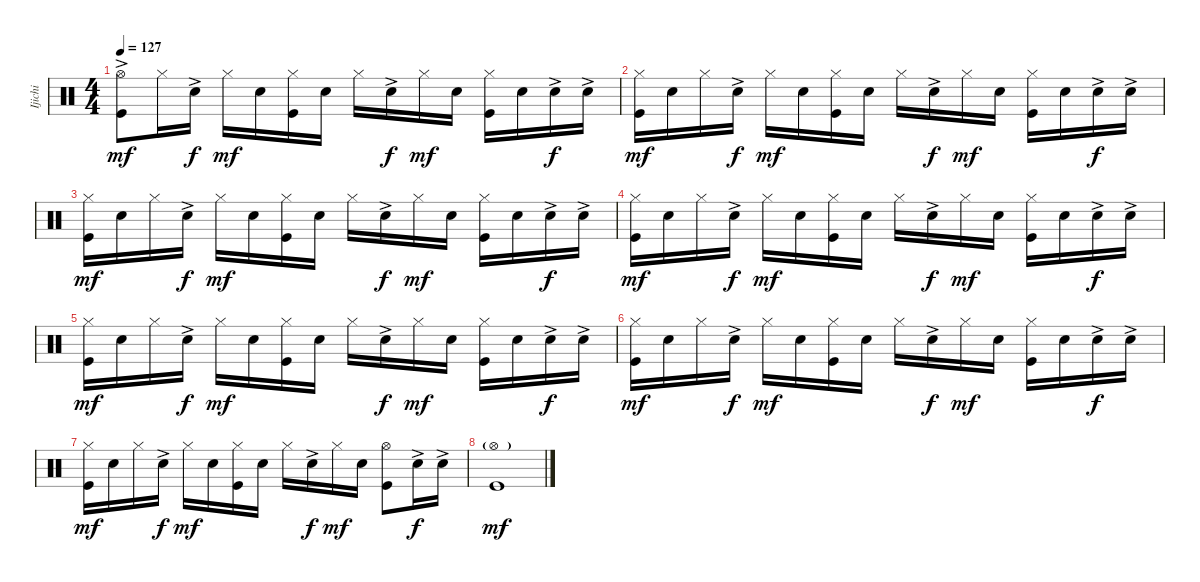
\track ("Ijichi" "Ijichi") {instrument percussion}
\staff {score}
\articulation defaults
\ts (4 4)
\tempo 127
\clef neutral
\ks c
("Hi-Hat (open)"{ac} "Kick (hit)").8{dy mf} "Hi-Hat (closed)".16 "Electric Snare (hit)"{ac}.16{dy f} "Hi-Hat (closed)".16{dy mf} "Electric Snare (hit)".16 ("Hi-Hat (closed)" "Kick (hit)").16 "Electric Snare (hit)".16 "Hi-Hat (closed)".16 "Electric Snare (hit)"{ac}.16{dy f} "Hi-Hat (closed)".16{dy mf} "Electric Snare (hit)".16 ("Hi-Hat (closed)" "Kick (hit)").16 "Electric Snare (hit)".16 "Electric Snare (hit)"{ac}.16{dy f} "Electric Snare (hit)"{ac}.16 |
("Hi-Hat (closed)" "Kick (hit)").16{dy mf} "Electric Snare (hit)".16 "Hi-Hat (closed)".16 "Electric Snare (hit)"{ac}.16{dy f} "Hi-Hat (closed)".16{dy mf} "Electric Snare (hit)".16 ("Hi-Hat (closed)" "Kick (hit)").16 "Electric Snare (hit)".16 "Hi-Hat (closed)".16 "Electric Snare (hit)"{ac}.16{dy f} "Hi-Hat (closed)".16{dy mf} "Electric Snare (hit)".16 ("Hi-Hat (closed)" "Kick (hit)").16 "Electric Snare (hit)".16 "Electric Snare (hit)"{ac}.16{dy f} "Electric Snare (hit)"{ac}.16 |
("Hi-Hat (closed)" "Kick (hit)").16{dy mf} "Electric Snare (hit)".16 "Hi-Hat (closed)".16 "Electric Snare (hit)"{ac}.16{dy f} "Hi-Hat (closed)".16{dy mf} "Electric Snare (hit)".16 ("Hi-Hat (closed)" "Kick (hit)").16 "Electric Snare (hit)".16 "Hi-Hat (closed)".16 "Electric Snare (hit)"{ac}.16{dy f} "Hi-Hat (closed)".16{dy mf} "Electric Snare (hit)".16 ("Hi-Hat (closed)" "Kick (hit)").16 "Electric Snare (hit)".16 "Electric Snare (hit)"{ac}.16{dy f} "Electric Snare (hit)"{ac}.16 |
("Hi-Hat (closed)" "Kick (hit)").16{dy mf} "Electric Snare (hit)".16 "Hi-Hat (closed)".16 "Electric Snare (hit)"{ac}.16{dy f} "Hi-Hat (closed)".16{dy mf} "Electric Snare (hit)".16 ("Hi-Hat (closed)" "Kick (hit)").16 "Electric Snare (hit)".16 "Hi-Hat (closed)".16 "Electric Snare (hit)"{ac}.16{dy f} "Hi-Hat (closed)".16{dy mf} "Electric Snare (hit)".16 ("Hi-Hat (closed)" "Kick (hit)").16 "Electric Snare (hit)".16 "Electric Snare (hit)"{ac}.16{dy f} "Electric Snare (hit)"{ac}.16 |
("Hi-Hat (closed)" "Kick (hit)").16{dy mf} "Electric Snare (hit)".16 "Hi-Hat (closed)".16 "Electric Snare (hit)"{ac}.16{dy f} "Hi-Hat (closed)".16{dy mf} "Electric Snare (hit)".16 ("Hi-Hat (closed)" "Kick (hit)").16 "Electric Snare (hit)".16 "Hi-Hat (closed)".16 "Electric Snare (hit)"{ac}.16{dy f} "Hi-Hat (closed)".16{dy mf} "Electric Snare (hit)".16 ("Hi-Hat (closed)" "Kick (hit)").16 "Electric Snare (hit)".16 "Electric Snare (hit)"{ac}.16{dy f} "Electric Snare (hit)"{ac}.16 |
("Hi-Hat (closed)" "Kick (hit)").16{dy mf} "Electric Snare (hit)".16 "Hi-Hat (closed)".16 "Electric Snare (hit)"{ac}.16{dy f} "Hi-Hat (closed)".16{dy mf} "Electric Snare (hit)".16 ("Hi-Hat (closed)" "Kick (hit)").16 "Electric Snare (hit)".16 "Hi-Hat (closed)".16 "Electric Snare (hit)"{ac}.16{dy f} "Hi-Hat (closed)".16{dy mf} "Electric Snare (hit)".16 ("Hi-Hat (closed)" "Kick (hit)").16 "Electric Snare (hit)".16 "Electric Snare (hit)"{ac}.16{dy f} "Electric Snare (hit)"{ac}.16 |
("Hi-Hat (closed)" "Kick (hit)").16{dy mf} "Electric Snare (hit)".16 "Hi-Hat (closed)".16 "Electric Snare (hit)"{ac}.16{dy f} "Hi-Hat (closed)".16{dy mf} "Electric Snare (hit)".16 ("Hi-Hat (closed)" "Kick (hit)").16 "Electric Snare (hit)".16 "Hi-Hat (closed)".16 "Electric Snare (hit)"{ac}.16{dy f} "Hi-Hat (closed)".16{dy mf} "Electric Snare (hit)".16 ("Hi-Hat (open)" "Kick (hit)").8 "Electric Snare (hit)"{ac}.16{dy f} "Electric Snare (hit)"{ac}.16 |
("Hi-Hat (open)"{g} "Kick (hit)").1{dy mf}
